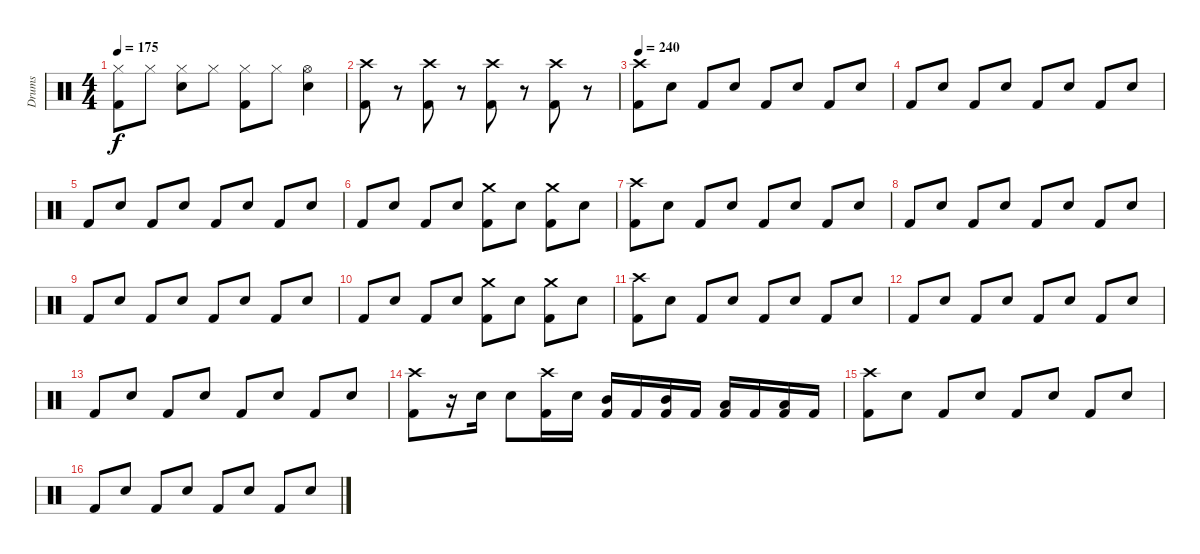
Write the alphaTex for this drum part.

\track ("Drums" "Drums") {instrument percussion}
\staff {score}
\articulation defaults
\ts (4 4)
\tempo 175
\clef neutral
\ks c
("Hi-Hat (closed)" "Kick (hit) 2").8{dy f} "Hi-Hat (closed)".8 ("Hi-Hat (closed)" "Snare (hit) 2").8 "Hi-Hat (closed)".8 ("Hi-Hat (closed)" "Kick (hit) 2").8 "Hi-Hat (closed)".8 ("Hi-Hat (open)" "Snare (hit) 2").4 |
("Crash high (hit)" "Kick (hit) 2").8 r.8{volume 0} ("Crash high (hit)" "Kick (hit) 2").8{volume 10} r.8{volume 0} ("Crash high (hit)" "Kick (hit) 2").8{volume 10} r.8{volume 0} ("Crash high (hit)" "Kick (hit) 2").8{volume 10} r.8{volume 0} |
\tempo 240
("Crash high (hit)" "Kick (hit) 2").8{volume 10} "Snare (hit) 2".8 "Kick (hit) 2".8 "Snare (hit) 2".8 "Kick (hit) 2".8 "Snare (hit) 2".8 "Kick (hit) 2".8 "Snare (hit) 2".8 |
"Kick (hit) 2".8 "Snare (hit) 2".8 "Kick (hit) 2".8 "Snare (hit) 2".8 "Kick (hit) 2".8 "Snare (hit) 2".8 "Kick (hit) 2".8 "Snare (hit) 2".8 |
"Kick (hit) 2".8 "Snare (hit) 2".8 "Kick (hit) 2".8 "Snare (hit) 2".8 "Kick (hit) 2".8 "Snare (hit) 2".8 "Kick (hit) 2".8 "Snare (hit) 2".8 |
"Kick (hit) 2".8 "Snare (hit) 2".8 "Kick (hit) 2".8 "Snare (hit) 2".8 ("Crash medium (hit)" "Kick (hit) 2").8 "Snare (hit) 2".8 ("Crash medium (hit)" "Kick (hit) 2").8 "Snare (hit) 2".8 |
("Crash high (hit)" "Kick (hit) 2").8 "Snare (hit) 2".8 "Kick (hit) 2".8 "Snare (hit) 2".8 "Kick (hit) 2".8 "Snare (hit) 2".8 "Kick (hit) 2".8 "Snare (hit) 2".8 |
"Kick (hit) 2".8 "Snare (hit) 2".8 "Kick (hit) 2".8 "Snare (hit) 2".8 "Kick (hit) 2".8 "Snare (hit) 2".8 "Kick (hit) 2".8 "Snare (hit) 2".8 |
"Kick (hit) 2".8 "Snare (hit) 2".8 "Kick (hit) 2".8 "Snare (hit) 2".8 "Kick (hit) 2".8 "Snare (hit) 2".8 "Kick (hit) 2".8 "Snare (hit) 2".8 |
"Kick (hit) 2".8 "Snare (hit) 2".8 "Kick (hit) 2".8 "Snare (hit) 2".8 ("Crash medium (hit)" "Kick (hit) 2").8 "Snare (hit) 2".8 ("Crash medium (hit)" "Kick (hit) 2").8 "Snare (hit) 2".8 |
("Crash high (hit)" "Kick (hit) 2").8 "Snare (hit) 2".8 "Kick (hit) 2".8 "Snare (hit) 2".8 "Kick (hit) 2".8 "Snare (hit) 2".8 "Kick (hit) 2".8 "Snare (hit) 2".8 |
"Kick (hit) 2".8 "Snare (hit) 2".8 "Kick (hit) 2".8 "Snare (hit) 2".8 "Kick (hit) 2".8 "Snare (hit) 2".8 "Kick (hit) 2".8 "Snare (hit) 2".8 |
"Kick (hit) 2".8 "Snare (hit) 2".8 "Kick (hit) 2".8 "Snare (hit) 2".8 "Kick (hit) 2".8 "Snare (hit) 2".8 "Kick (hit) 2".8 "Snare (hit) 2".8 |
("Crash high (hit)" "Kick (hit) 2").8 r.16 "Snare (hit) 2".16 "Snare (hit) 2".8 ("Crash high (hit)" "Kick (hit) 2").16 "Snare (hit) 2".16 ("Kick (hit) 2" "Mid Tom (hit)").16 "Kick (hit) 2".16 ("Kick (hit) 2" "Mid Tom (hit)").16 "Kick (hit) 2".16 ("Kick (hit) 2" "Low Tom (hit)").16 "Kick (hit) 2".16 ("Kick (hit) 2" "Low Tom (hit)").16 "Kick (hit) 2".16 |
("Crash high (hit)" "Kick (hit) 2").8 "Snare (hit) 2".8 "Kick (hit) 2".8 "Snare (hit) 2".8 "Kick (hit) 2".8 "Snare (hit) 2".8 "Kick (hit) 2".8 "Snare (hit) 2".8 |
"Kick (hit) 2".8 "Snare (hit) 2".8 "Kick (hit) 2".8 "Snare (hit) 2".8 "Kick (hit) 2".8 "Snare (hit) 2".8 "Kick (hit) 2".8 "Snare (hit) 2".8
